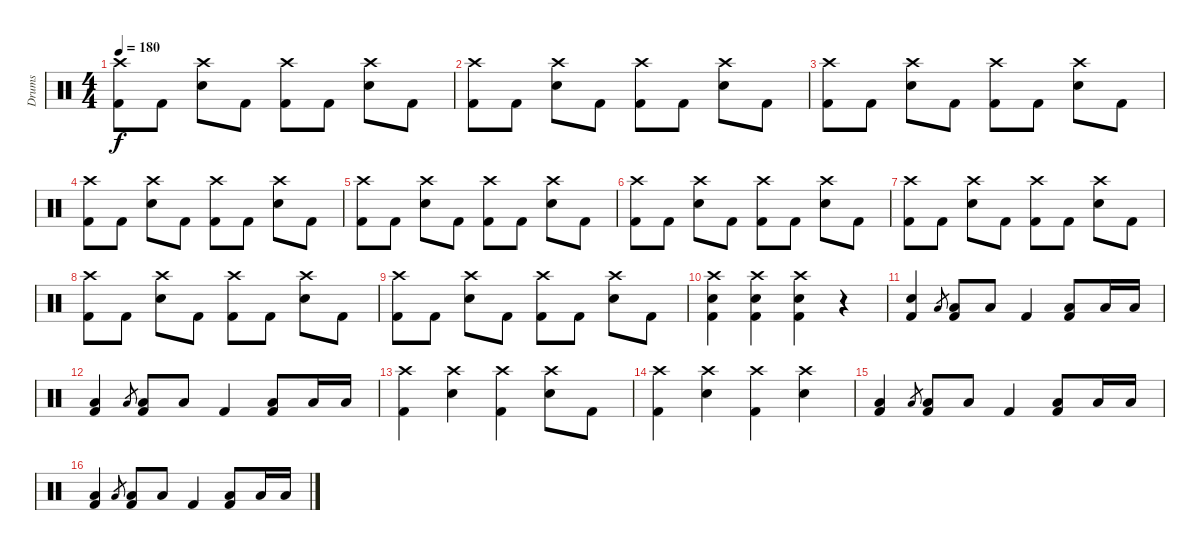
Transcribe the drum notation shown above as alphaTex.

\track ("Drums" "Drums") {instrument percussion}
\staff {score}
\articulation defaults
\ts (4 4)
\tempo 180
\clef neutral
\ks c
("Crash high (hit)" "Kick (hit) 2").8{dy f} "Kick (hit) 2".8 ("Crash high (hit)" "Snare (hit) 2").8 "Kick (hit) 2".8 ("Crash high (hit)" "Kick (hit) 2").8 "Kick (hit) 2".8 ("Crash high (hit)" "Snare (hit) 2").8 "Kick (hit) 2".8 |
("Crash high (hit)" "Kick (hit) 2").8 "Kick (hit) 2".8 ("Crash high (hit)" "Snare (hit) 2").8 "Kick (hit) 2".8 ("Crash high (hit)" "Kick (hit) 2").8 "Kick (hit) 2".8 ("Crash high (hit)" "Snare (hit) 2").8 "Kick (hit) 2".8 |
("Crash high (hit)" "Kick (hit) 2").8 "Kick (hit) 2".8 ("Crash high (hit)" "Snare (hit) 2").8 "Kick (hit) 2".8 ("Crash high (hit)" "Kick (hit) 2").8 "Kick (hit) 2".8 ("Crash high (hit)" "Snare (hit) 2").8 "Kick (hit) 2".8 |
("Crash high (hit)" "Kick (hit) 2").8 "Kick (hit) 2".8 ("Crash high (hit)" "Snare (hit) 2").8 "Kick (hit) 2".8 ("Crash high (hit)" "Kick (hit) 2").8 "Kick (hit) 2".8 ("Crash high (hit)" "Snare (hit) 2").8 "Kick (hit) 2".8 |
("Crash high (hit)" "Kick (hit) 2").8 "Kick (hit) 2".8 ("Crash high (hit)" "Snare (hit) 2").8 "Kick (hit) 2".8 ("Crash high (hit)" "Kick (hit) 2").8 "Kick (hit) 2".8 ("Crash high (hit)" "Snare (hit) 2").8 "Kick (hit) 2".8 |
("Crash high (hit)" "Kick (hit) 2").8 "Kick (hit) 2".8 ("Crash high (hit)" "Snare (hit) 2").8 "Kick (hit) 2".8 ("Crash high (hit)" "Kick (hit) 2").8 "Kick (hit) 2".8 ("Crash high (hit)" "Snare (hit) 2").8 "Kick (hit) 2".8 |
("Crash high (hit)" "Kick (hit) 2").8 "Kick (hit) 2".8 ("Crash high (hit)" "Snare (hit) 2").8 "Kick (hit) 2".8 ("Crash high (hit)" "Kick (hit) 2").8 "Kick (hit) 2".8 ("Crash high (hit)" "Snare (hit) 2").8 "Kick (hit) 2".8 |
("Crash high (hit)" "Kick (hit) 2").8 "Kick (hit) 2".8 ("Crash high (hit)" "Snare (hit) 2").8 "Kick (hit) 2".8 ("Crash high (hit)" "Kick (hit) 2").8 "Kick (hit) 2".8 ("Crash high (hit)" "Snare (hit) 2").8 "Kick (hit) 2".8 |
("Crash high (hit)" "Kick (hit) 2").8 "Kick (hit) 2".8 ("Crash high (hit)" "Snare (hit) 2").8 "Kick (hit) 2".8 ("Crash high (hit)" "Kick (hit) 2").8 "Kick (hit) 2".8 ("Crash high (hit)" "Snare (hit) 2").8 "Kick (hit) 2".8 |
("Crash high (hit)" "Snare (hit) 2" "Kick (hit) 2").4 ("Crash high (hit)" "Snare (hit) 2" "Kick (hit) 2").4 ("Crash high (hit)" "Snare (hit) 2" "Kick (hit) 2").4 r.4 |
("Snare (hit) 2" "Kick (hit) 2").4 "Low Tom (hit)".8{gr} ("Low Tom (hit)" "Kick (hit) 2").8 "Low Tom (hit)".8 "Kick (hit) 2".4 ("Low Tom (hit)" "Kick (hit) 2").8 "Low Tom (hit)".16 "Low Tom (hit)".16 |
("Low Tom (hit)" "Kick (hit) 2").4 "Low Tom (hit)".8{gr} ("Low Tom (hit)" "Kick (hit) 2").8 "Low Tom (hit)".8 "Kick (hit) 2".4 ("Low Tom (hit)" "Kick (hit) 2").8 "Low Tom (hit)".16 "Low Tom (hit)".16 |
("Crash high (hit)" "Kick (hit) 2").4 ("Crash high (hit)" "Snare (hit) 2").4 ("Crash high (hit)" "Kick (hit) 2").4 ("Crash high (hit)" "Snare (hit) 2").8 "Kick (hit) 2".8 |
("Crash high (hit)" "Kick (hit) 2").4 ("Crash high (hit)" "Snare (hit) 2").4 ("Crash high (hit)" "Kick (hit) 2").4 ("Crash high (hit)" "Snare (hit) 2").4 |
("Low Tom (hit)" "Kick (hit) 2").4 "Low Tom (hit)".8{gr} ("Low Tom (hit)" "Kick (hit) 2").8 "Low Tom (hit)".8 "Kick (hit) 2".4 ("Low Tom (hit)" "Kick (hit) 2").8 "Low Tom (hit)".16 "Low Tom (hit)".16 |
("Low Tom (hit)" "Kick (hit) 2").4 "Low Tom (hit)".8{gr} ("Low Tom (hit)" "Kick (hit) 2").8 "Low Tom (hit)".8 "Kick (hit) 2".4 ("Low Tom (hit)" "Kick (hit) 2").8 "Low Tom (hit)".16 "Low Tom (hit)".16
